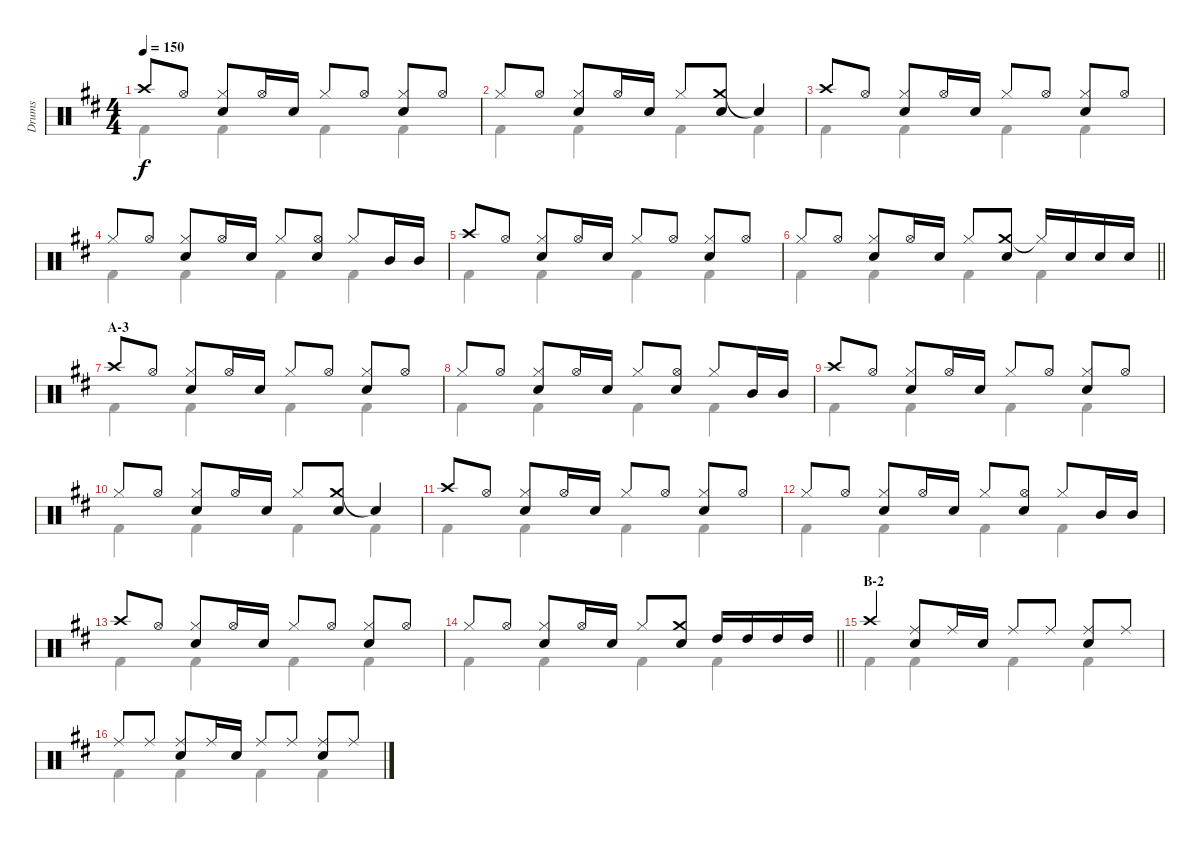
\track ("Drums" "Drums") {instrument percussion}
\staff {score}
\articulation defaults
\voice
\ts (4 4)
\tempo 150
\clef neutral
\ks d "Crash high (hit)".8{dy f} "Hi-Hat (open)".8
("Hi-Hat (closed)" "Snare (hit) 2").8 "Hi-Hat (open)".16 "Snare (hit) 2".16 "Hi-Hat (closed)".8 "Hi-Hat (open)".8 ("Hi-Hat (closed)" "Snare (hit) 2").8 "Hi-Hat (open)".8 |
"Hi-Hat (closed)".8 "Hi-Hat (open)".8 ("Hi-Hat (closed)" "Snare (hit) 2").8 "Hi-Hat (open)".16 "Snare (hit) 2".16 "Hi-Hat (closed)".8 ("Crash medium (hit)" "Snare (hit) 2").8 "Snare (hit)"{t}.4 |
"Crash high (hit)".8 "Hi-Hat (open)".8 ("Hi-Hat (closed)" "Snare (hit) 2").8 "Hi-Hat (open)".16 "Snare (hit) 2".16 "Hi-Hat (closed)".8 "Hi-Hat (open)".8 ("Hi-Hat (closed)" "Snare (hit) 2").8 "Hi-Hat (open)".8 |
"Hi-Hat (closed)".8 "Hi-Hat (open)".8 ("Hi-Hat (closed)" "Snare (hit) 2").8 "Hi-Hat (open)".16 "Snare (hit) 2".16 "Hi-Hat (closed)".8 ("Hi-Hat (open)" "Snare (hit) 2").8 "Hi-Hat (closed)".8 "Mid Tom (hit)".16 "Mid Tom (hit)".16 |
"Crash high (hit)".8 "Hi-Hat (open)".8 ("Hi-Hat (closed)" "Snare (hit) 2").8 "Hi-Hat (open)".16 "Snare (hit) 2".16 "Hi-Hat (closed)".8 "Hi-Hat (open)".8 ("Hi-Hat (closed)" "Snare (hit) 2").8 "Hi-Hat (open)".8 |
\barLineRight lightlight "Hi-Hat (closed)".8 "Hi-Hat (open)".8
("Hi-Hat (closed)" "Snare (hit) 2").8 "Hi-Hat (open)".16 "Snare (hit) 2".16 "Hi-Hat (closed)".8 ("Crash medium (hit)" "Snare (hit) 2").8 "Hi-Hat (closed)"{t}.16 "Snare (hit) 2".16 "Snare (hit) 2".16 "Snare (hit) 2".16 |
\section ("" "A-3")
"Crash high (hit)".8 "Hi-Hat (open)".8 ("Hi-Hat (closed)" "Snare (hit) 2").8 "Hi-Hat (open)".16 "Snare (hit) 2".16 "Hi-Hat (closed)".8 "Hi-Hat (open)".8 ("Hi-Hat (closed)" "Snare (hit) 2").8 "Hi-Hat (open)".8 |
"Hi-Hat (closed)".8 "Hi-Hat (open)".8 ("Hi-Hat (closed)" "Snare (hit) 2").8 "Hi-Hat (open)".16 "Snare (hit) 2".16 "Hi-Hat (closed)".8 ("Hi-Hat (open)" "Snare (hit) 2").8 "Hi-Hat (closed)".8 "Mid Tom (hit)".16 "Mid Tom (hit)".16 |
"Crash high (hit)".8 "Hi-Hat (open)".8 ("Hi-Hat (closed)" "Snare (hit) 2").8 "Hi-Hat (open)".16 "Snare (hit) 2".16 "Hi-Hat (closed)".8 "Hi-Hat (open)".8 ("Hi-Hat (closed)" "Snare (hit) 2").8 "Hi-Hat (open)".8 |
"Hi-Hat (closed)".8 "Hi-Hat (open)".8 ("Hi-Hat (closed)" "Snare (hit) 2").8 "Hi-Hat (open)".16 "Snare (hit) 2".16 "Hi-Hat (closed)".8 ("Crash medium (hit)" "Snare (hit) 2").8 "Snare (hit)"{t}.4 |
"Crash high (hit)".8 "Hi-Hat (open)".8 ("Hi-Hat (closed)" "Snare (hit) 2").8 "Hi-Hat (open)".16 "Snare (hit) 2".16 "Hi-Hat (closed)".8 "Hi-Hat (open)".8 ("Hi-Hat (closed)" "Snare (hit) 2").8 "Hi-Hat (open)".8 |
"Hi-Hat (closed)".8 "Hi-Hat (open)".8 ("Hi-Hat (closed)" "Snare (hit) 2").8 "Hi-Hat (open)".16 "Snare (hit) 2".16 "Hi-Hat (closed)".8 ("Hi-Hat (open)" "Snare (hit) 2").8 "Hi-Hat (closed)".8 "Mid Tom (hit)".16 "Mid Tom (hit)".16 |
"Crash high (hit)".8 "Hi-Hat (open)".8 ("Hi-Hat (closed)" "Snare (hit) 2").8 "Hi-Hat (open)".16 "Snare (hit) 2".16 "Hi-Hat (closed)".8 "Hi-Hat (open)".8 ("Hi-Hat (closed)" "Snare (hit) 2").8 "Hi-Hat (open)".8 |
\barLineRight lightlight "Hi-Hat (closed)".8 "Hi-Hat (open)".8
("Hi-Hat (closed)" "Snare (hit) 2").8 "Hi-Hat (open)".16 "Snare (hit) 2".16 "Hi-Hat (closed)".8 ("Crash medium (hit)" "Snare (hit) 2").8 "High Tom (hit)".16 "High Tom (hit)".16 "High Tom (hit)".16 "High Tom (hit)".16 |
\section ("" "B-2")
"Crash high (hit)".4 ("Ride (middle)" "Snare (hit) 2").8 "Ride (middle)".16 "Snare (hit) 2".16 "Ride (middle)".8 "Ride (middle)".8 ("Ride (middle)" "Snare (hit) 2").8 "Ride (middle)".8 |
"Ride (middle)".8 "Ride (middle)".8 ("Ride (middle)" "Snare (hit) 2").8 "Ride (middle)".16 "Snare (hit) 2".16 "Ride (middle)".8 "Ride (middle)".8 ("Ride (middle)" "Snare (hit) 2").8 "Ride (middle)".8
\voice
\clef neutral
\ottava regular
\simile none
\ks d "Kick (hit) 2".4{dy f} "Kick (hit) 2".4 "Kick (hit) 2".4 "Kick (hit) 2".4
|
"Kick (hit) 2".4 "Kick (hit) 2".4 "Kick (hit) 2".4 "Kick (hit) 2".4 |
"Kick (hit) 2".4 "Kick (hit) 2".4 "Kick (hit) 2".4 "Kick (hit) 2".4 |
"Kick (hit) 2".4 "Kick (hit) 2".4 "Kick (hit) 2".4 "Kick (hit) 2".4 |
"Kick (hit) 2".4 "Kick (hit) 2".4 "Kick (hit) 2".4 "Kick (hit) 2".4 |
\barLineRight lightlight "Kick (hit) 2".4 "Kick (hit) 2".4 "Kick (hit) 2".4 "Kick (hit) 2".4
|
"Kick (hit) 2".4 "Kick (hit) 2".4 "Kick (hit) 2".4 "Kick (hit) 2".4 |
"Kick (hit) 2".4 "Kick (hit) 2".4 "Kick (hit) 2".4 "Kick (hit) 2".4 |
"Kick (hit) 2".4 "Kick (hit) 2".4 "Kick (hit) 2".4 "Kick (hit) 2".4 |
"Kick (hit) 2".4 "Kick (hit) 2".4 "Kick (hit) 2".4 "Kick (hit) 2".4 |
"Kick (hit) 2".4 "Kick (hit) 2".4 "Kick (hit) 2".4 "Kick (hit) 2".4 |
"Kick (hit) 2".4 "Kick (hit) 2".4 "Kick (hit) 2".4 "Kick (hit) 2".4 |
"Kick (hit) 2".4 "Kick (hit) 2".4 "Kick (hit) 2".4 "Kick (hit) 2".4 |
\barLineRight lightlight "Kick (hit) 2".4 "Kick (hit) 2".4 "Kick (hit) 2".4 "Kick (hit) 2".4
|
"Kick (hit) 2".4 "Kick (hit) 2".4 "Kick (hit) 2".4 "Kick (hit) 2".4 |
"Kick (hit) 2".4 "Kick (hit) 2".4 "Kick (hit) 2".4 "Kick (hit) 2".4
